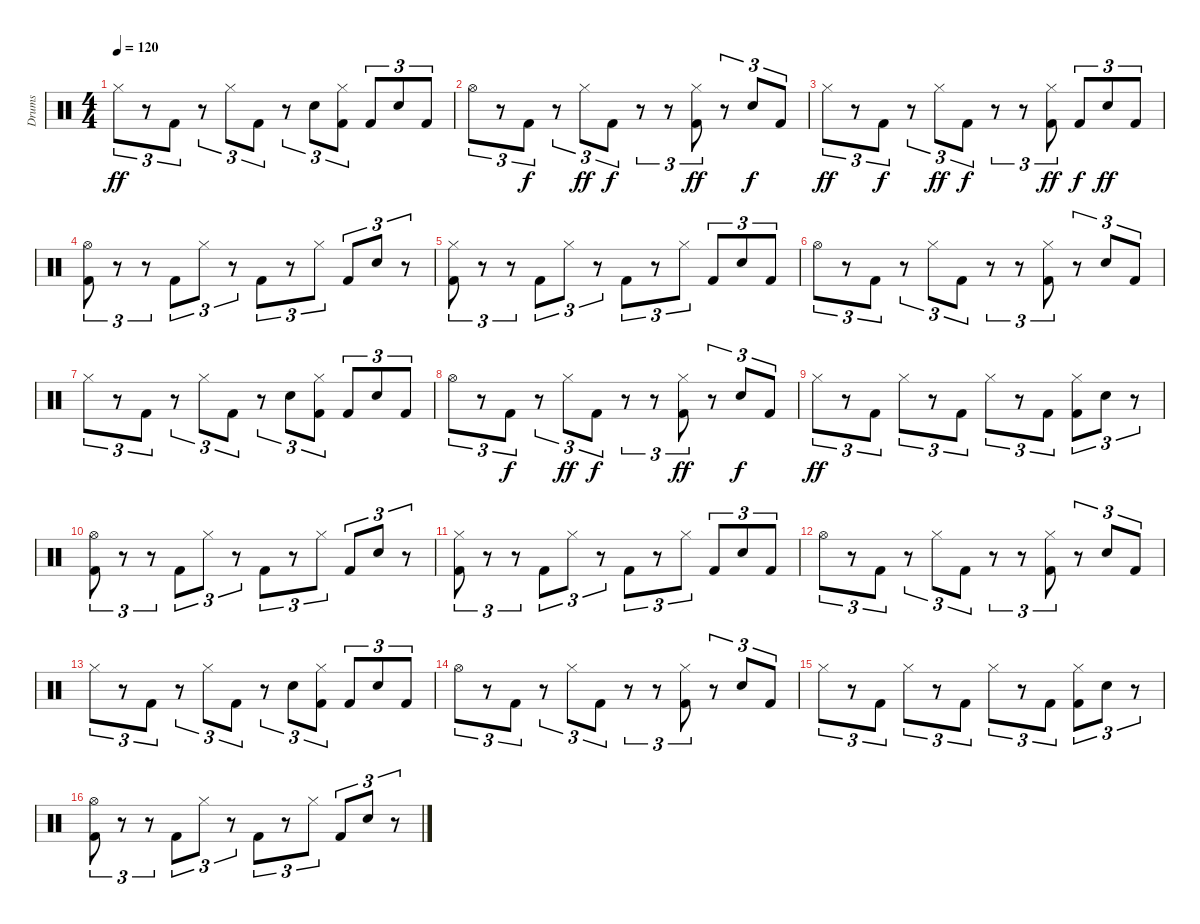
\track ("Drums" "Drums") {instrument percussion}
\staff {score}
\articulation defaults
\ts (4 4)
\tempo 120
\clef neutral
\ks c "Hi-Hat (closed)".8{tu (3 2) dy ff}
r.8{tu (3 2)} "Kick (hit) 2".8{tu (3 2)} r.8{tu (3 2)} "Hi-Hat (closed)".8{tu (3 2)} "Kick (hit) 2".8{tu (3 2)} r.8{tu (3 2)} "Electric Snare (hit)".8{tu (3 2)} ("Hi-Hat (closed)" "Kick (hit) 2").8{tu (3 2)} "Kick (hit) 2".8{tu (3 2)} "Electric Snare (hit)".8{tu (3 2)} "Kick (hit) 2".8{tu (3 2)} |
"Hi-Hat (open)".8{tu (3 2)} r.8{tu (3 2)} "Kick (hit) 2".8{tu (3 2) dy f} r.8{tu (3 2)} "Hi-Hat (closed)".8{tu (3 2) dy ff} "Kick (hit) 2".8{tu (3 2) dy f} r.8{tu (3 2)} r.8{tu (3 2)} ("Hi-Hat (closed)" "Kick (hit) 2").8{tu (3 2) dy ff} r.8{tu (3 2)} "Electric Snare (hit)".8{tu (3 2) dy f} "Kick (hit) 2".8{tu (3 2)} |
"Hi-Hat (closed)".8{tu (3 2) dy ff} r.8{tu (3 2)} "Kick (hit) 2".8{tu (3 2) dy f} r.8{tu (3 2)} "Hi-Hat (closed)".8{tu (3 2) dy ff} "Kick (hit) 2".8{tu (3 2) dy f} r.8{tu (3 2)} r.8{tu (3 2)} ("Hi-Hat (closed)" "Kick (hit) 2").8{tu (3 2) dy ff} "Kick (hit) 2".8{tu (3 2) dy f} "Electric Snare (hit)".8{tu (3 2) dy ff} "Kick (hit) 2".8{tu (3 2)} |
("Hi-Hat (open)" "Kick (hit) 2").8{tu (3 2)} r.8{tu (3 2)} r.8{tu (3 2)} "Kick (hit) 2".8{tu (3 2)} "Hi-Hat (closed)".8{tu (3 2)} r.8{tu (3 2)} "Kick (hit) 2".8{tu (3 2)} r.8{tu (3 2)} "Hi-Hat (closed)".8{tu (3 2)} "Kick (hit) 2".8{tu (3 2)} "Electric Snare (hit)".8{tu (3 2)} r.8{tu (3 2)} |
("Hi-Hat (closed)" "Kick (hit) 2").8{tu (3 2)} r.8{tu (3 2)} r.8{tu (3 2)} "Kick (hit) 2".8{tu (3 2)} "Hi-Hat (closed)".8{tu (3 2)} r.8{tu (3 2)} "Kick (hit) 2".8{tu (3 2)} r.8{tu (3 2)} "Hi-Hat (closed)".8{tu (3 2)} "Kick (hit) 2".8{tu (3 2)} "Electric Snare (hit)".8{tu (3 2)} "Kick (hit) 2".8{tu (3 2)} |
"Hi-Hat (open)".8{tu (3 2)} r.8{tu (3 2)} "Kick (hit) 2".8{tu (3 2)} r.8{tu (3 2)} "Hi-Hat (closed)".8{tu (3 2)} "Kick (hit) 2".8{tu (3 2)} r.8{tu (3 2)} r.8{tu (3 2)} ("Hi-Hat (closed)" "Kick (hit) 2").8{tu (3 2)} r.8{tu (3 2)} "Electric Snare (hit)".8{tu (3 2)} "Kick (hit) 2".8{tu (3 2)} |
"Hi-Hat (closed)".8{tu (3 2)} r.8{tu (3 2)} "Kick (hit) 2".8{tu (3 2)} r.8{tu (3 2)} "Hi-Hat (closed)".8{tu (3 2)} "Kick (hit) 2".8{tu (3 2)} r.8{tu (3 2)} "Electric Snare (hit)".8{tu (3 2)} ("Hi-Hat (closed)" "Kick (hit) 2").8{tu (3 2)} "Kick (hit) 2".8{tu (3 2)} "Electric Snare (hit)".8{tu (3 2)} "Kick (hit) 2".8{tu (3 2)} |
"Hi-Hat (open)".8{tu (3 2)} r.8{tu (3 2)} "Kick (hit) 2".8{tu (3 2) dy f} r.8{tu (3 2)} "Hi-Hat (closed)".8{tu (3 2) dy ff} "Kick (hit) 2".8{tu (3 2) dy f} r.8{tu (3 2)} r.8{tu (3 2)} ("Hi-Hat (closed)" "Kick (hit) 2").8{tu (3 2) dy ff} r.8{tu (3 2)} "Electric Snare (hit)".8{tu (3 2) dy f} "Kick (hit) 2".8{tu (3 2)} |
"Hi-Hat (closed)".8{tu (3 2) dy ff} r.8{tu (3 2)} "Kick (hit) 2".8{tu (3 2)} "Hi-Hat (closed)".8{tu (3 2)} r.8{tu (3 2)} "Kick (hit) 2".8{tu (3 2)} "Hi-Hat (closed)".8{tu (3 2)} r.8{tu (3 2)} "Kick (hit) 2".8{tu (3 2)} ("Hi-Hat (closed)" "Kick (hit) 2").8{tu (3 2)} "Electric Snare (hit)".8{tu (3 2)} r.8{tu (3 2)} |
("Hi-Hat (open)" "Kick (hit) 2").8{tu (3 2)} r.8{tu (3 2)} r.8{tu (3 2)} "Kick (hit) 2".8{tu (3 2)} "Hi-Hat (closed)".8{tu (3 2)} r.8{tu (3 2)} "Kick (hit) 2".8{tu (3 2)} r.8{tu (3 2)} "Hi-Hat (closed)".8{tu (3 2)} "Kick (hit) 2".8{tu (3 2)} "Electric Snare (hit)".8{tu (3 2)} r.8{tu (3 2)} |
("Hi-Hat (closed)" "Kick (hit) 2").8{tu (3 2)} r.8{tu (3 2)} r.8{tu (3 2)} "Kick (hit) 2".8{tu (3 2)} "Hi-Hat (closed)".8{tu (3 2)} r.8{tu (3 2)} "Kick (hit) 2".8{tu (3 2)} r.8{tu (3 2)} "Hi-Hat (closed)".8{tu (3 2)} "Kick (hit) 2".8{tu (3 2)} "Electric Snare (hit)".8{tu (3 2)} "Kick (hit) 2".8{tu (3 2)} |
"Hi-Hat (open)".8{tu (3 2)} r.8{tu (3 2)} "Kick (hit) 2".8{tu (3 2)} r.8{tu (3 2)} "Hi-Hat (closed)".8{tu (3 2)} "Kick (hit) 2".8{tu (3 2)} r.8{tu (3 2)} r.8{tu (3 2)} ("Hi-Hat (closed)" "Kick (hit) 2").8{tu (3 2)} r.8{tu (3 2)} "Electric Snare (hit)".8{tu (3 2)} "Kick (hit) 2".8{tu (3 2)} |
"Hi-Hat (closed)".8{tu (3 2)} r.8{tu (3 2)} "Kick (hit) 2".8{tu (3 2)} r.8{tu (3 2)} "Hi-Hat (closed)".8{tu (3 2)} "Kick (hit) 2".8{tu (3 2)} r.8{tu (3 2)} "Electric Snare (hit)".8{tu (3 2)} ("Hi-Hat (closed)" "Kick (hit) 2").8{tu (3 2)} "Kick (hit) 2".8{tu (3 2)} "Electric Snare (hit)".8{tu (3 2)} "Kick (hit) 2".8{tu (3 2)} |
"Hi-Hat (open)".8{tu (3 2)} r.8{tu (3 2)} "Kick (hit) 2".8{tu (3 2)} r.8{tu (3 2)} "Hi-Hat (closed)".8{tu (3 2)} "Kick (hit) 2".8{tu (3 2)} r.8{tu (3 2)} r.8{tu (3 2)} ("Hi-Hat (closed)" "Kick (hit) 2").8{tu (3 2)} r.8{tu (3 2)} "Electric Snare (hit)".8{tu (3 2)} "Kick (hit) 2".8{tu (3 2)} |
"Hi-Hat (closed)".8{tu (3 2)} r.8{tu (3 2)} "Kick (hit) 2".8{tu (3 2)} "Hi-Hat (closed)".8{tu (3 2)} r.8{tu (3 2)} "Kick (hit) 2".8{tu (3 2)} "Hi-Hat (closed)".8{tu (3 2)} r.8{tu (3 2)} "Kick (hit) 2".8{tu (3 2)} ("Hi-Hat (closed)" "Kick (hit) 2").8{tu (3 2)} "Electric Snare (hit)".8{tu (3 2)} r.8{tu (3 2)} |
("Hi-Hat (open)" "Kick (hit) 2").8{tu (3 2)} r.8{tu (3 2)} r.8{tu (3 2)} "Kick (hit) 2".8{tu (3 2)} "Hi-Hat (closed)".8{tu (3 2)} r.8{tu (3 2)} "Kick (hit) 2".8{tu (3 2)} r.8{tu (3 2)} "Hi-Hat (closed)".8{tu (3 2)} "Kick (hit) 2".8{tu (3 2)} "Electric Snare (hit)".8{tu (3 2)} r.8{tu (3 2)}
